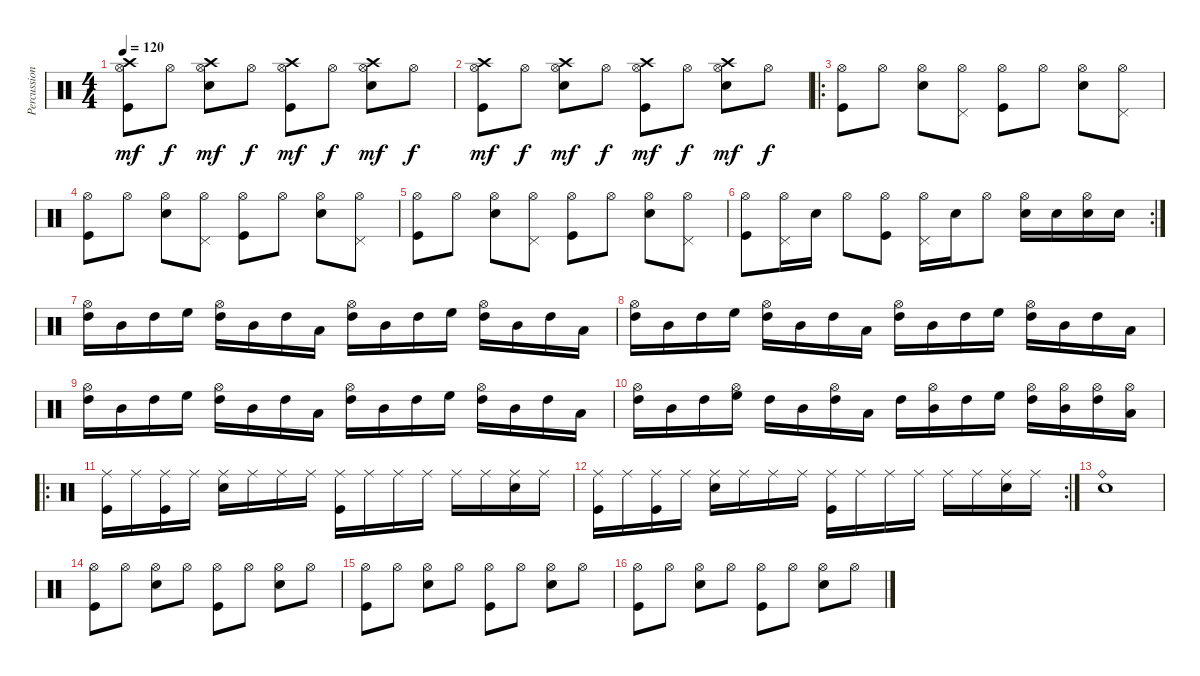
\track ("Percussion" "Percussion") {instrument percussion}
\staff {score}
\articulation defaults
\ts (4 4)
\tempo 120
\clef neutral
\ks c
("Hi-Hat (open)" "Kick (hit)" "Crash high (hit)").8{dy mf} "Hi-Hat (open)".8{dy f} ("Hi-Hat (open)" "Snare (hit) 2" "Crash high (hit)").8{dy mf} "Hi-Hat (open)".8{dy f} ("Hi-Hat (open)" "Kick (hit)" "Crash high (hit)").8{dy mf} "Hi-Hat (open)".8{dy f} ("Hi-Hat (open)" "Snare (hit) 2" "Crash high (hit)").8{dy mf} "Hi-Hat (open)".8{dy f} |
("Hi-Hat (open)" "Kick (hit)" "Crash high (hit)").8{dy mf} "Hi-Hat (open)".8{dy f} ("Hi-Hat (open)" "Snare (hit) 2" "Crash high (hit)").8{dy mf} "Hi-Hat (open)".8{dy f} ("Hi-Hat (open)" "Kick (hit)" "Crash high (hit)").8{dy mf} "Hi-Hat (open)".8{dy f} ("Hi-Hat (open)" "Snare (hit) 2" "Crash high (hit)").8{dy mf} "Hi-Hat (open)".8{dy f} |
\ro
("Hi-Hat (open)" "Kick (hit)").8 "Hi-Hat (open)".8 ("Hi-Hat (open)" "Snare (hit) 2").8 ("Hi-Hat (open)" "Pedal Hi-Hat (hit)").8 ("Hi-Hat (open)" "Kick (hit)").8 "Hi-Hat (open)".8 ("Hi-Hat (open)" "Snare (hit) 2").8 ("Hi-Hat (open)" "Pedal Hi-Hat (hit)").8 |
("Hi-Hat (open)" "Kick (hit)").8 "Hi-Hat (open)".8 ("Hi-Hat (open)" "Snare (hit) 2").8 ("Hi-Hat (open)" "Pedal Hi-Hat (hit)").8 ("Hi-Hat (open)" "Kick (hit)").8 "Hi-Hat (open)".8 ("Hi-Hat (open)" "Snare (hit) 2").8 ("Hi-Hat (open)" "Pedal Hi-Hat (hit)").8 |
("Hi-Hat (open)" "Kick (hit)").8 "Hi-Hat (open)".8 ("Hi-Hat (open)" "Snare (hit) 2").8 ("Hi-Hat (open)" "Pedal Hi-Hat (hit)").8 ("Hi-Hat (open)" "Kick (hit)").8 "Hi-Hat (open)".8 ("Hi-Hat (open)" "Snare (hit) 2").8 ("Hi-Hat (open)" "Pedal Hi-Hat (hit)").8 |
\rc 2
("Hi-Hat (open)" "Kick (hit)").8 ("Hi-Hat (open)" "Pedal Hi-Hat (hit)").16 "Snare (hit) 2".16 "Hi-Hat (open)".8 ("Hi-Hat (open)" "Kick (hit)").8 ("Hi-Hat (open)" "Pedal Hi-Hat (hit)").16 "Snare (hit) 2".16 "Hi-Hat (open)".8 ("Hi-Hat (open)" "Snare (hit) 2").16 "Snare (hit) 2".16 ("Hi-Hat (open)" "Snare (hit) 2").16 "Snare (hit) 2".16 |
("Hi-Hat (open)" "High Tom (hit)").16 "Mid Tom (hit)".16 "High Tom (hit)".16 "High Floor Tom (hit)".16 ("Hi-Hat (open)" "High Tom (hit)").16 "Mid Tom (hit)".16 "High Tom (hit)".16 "Low Tom (hit)".16 ("Hi-Hat (open)" "High Tom (hit)").16 "Mid Tom (hit)".16 "High Tom (hit)".16 "High Floor Tom (hit)".16 ("Hi-Hat (open)" "High Tom (hit)").16 "Mid Tom (hit)".16 "High Tom (hit)".16 "Low Tom (hit)".16 |
("Hi-Hat (open)" "High Tom (hit)").16 "Mid Tom (hit)".16 "High Tom (hit)".16 "High Floor Tom (hit)".16 ("Hi-Hat (open)" "High Tom (hit)").16 "Mid Tom (hit)".16 "High Tom (hit)".16 "Low Tom (hit)".16 ("Hi-Hat (open)" "High Tom (hit)").16 "Mid Tom (hit)".16 "High Tom (hit)".16 "High Floor Tom (hit)".16 ("Hi-Hat (open)" "High Tom (hit)").16 "Mid Tom (hit)".16 "High Tom (hit)".16 "Low Tom (hit)".16 |
("Hi-Hat (open)" "High Tom (hit)").16 "Mid Tom (hit)".16 "High Tom (hit)".16 "High Floor Tom (hit)".16 ("Hi-Hat (open)" "High Tom (hit)").16 "Mid Tom (hit)".16 "High Tom (hit)".16 "Low Tom (hit)".16 ("Hi-Hat (open)" "High Tom (hit)").16 "Mid Tom (hit)".16 "High Tom (hit)".16 "High Floor Tom (hit)".16 ("Hi-Hat (open)" "High Tom (hit)").16 "Mid Tom (hit)".16 "High Tom (hit)".16 "Low Tom (hit)".16 |
("Hi-Hat (open)" "High Tom (hit)").16 "Mid Tom (hit)".16 "High Tom (hit)".16 ("Hi-Hat (open)" "High Floor Tom (hit)").16 "High Tom (hit)".16 "Mid Tom (hit)".16 ("Hi-Hat (open)" "High Tom (hit)").16 "Low Tom (hit)".16 "High Tom (hit)".16 ("Hi-Hat (open)" "Mid Tom (hit)").16 "High Tom (hit)".16 "High Floor Tom (hit)".16 ("Hi-Hat (open)" "High Tom (hit)").16 ("Hi-Hat (open)" "Mid Tom (hit)").16 ("Hi-Hat (open)" "High Tom (hit)").16 ("Hi-Hat (open)" "Low Tom (hit)").16 |
\ro
("Ride (middle)" "Kick (hit)").16 "Ride (middle)".16 ("Ride (middle)" "Kick (hit)").16 "Ride (middle)".16 ("Ride (middle)" "Snare (hit) 2").16 "Ride (middle)".16 "Ride (middle)".16 "Ride (middle)".16 ("Ride (middle)" "Kick (hit)").16 "Ride (middle)".16 "Ride (middle)".16 "Ride (middle)".16 "Ride (middle)".16 "Ride (middle)".16 ("Ride (middle)" "Snare (hit) 2").16 "Ride (middle)".16 |
\rc 2
("Ride (middle)" "Kick (hit)").16 "Ride (middle)".16 ("Ride (middle)" "Kick (hit)").16 "Ride (middle)".16 ("Ride (middle)" "Snare (hit) 2").16 "Ride (middle)".16 "Ride (middle)".16 "Ride (middle)".16 ("Ride (middle)" "Kick (hit)").16 "Ride (middle)".16 "Ride (middle)".16 "Ride (middle)".16 "Ride (middle)".16 "Ride (middle)".16 ("Ride (middle)" "Snare (hit) 2").16 "Ride (middle)".16 |
("Ride (bell)" "Snare (hit) 2").1 |
("Hi-Hat (open)" "Kick (hit)").8 "Hi-Hat (open)".8 ("Hi-Hat (open)" "Snare (hit) 2").8 "Hi-Hat (open)".8 ("Hi-Hat (open)" "Kick (hit)").8 "Hi-Hat (open)".8 ("Hi-Hat (open)" "Snare (hit) 2").8 "Hi-Hat (open)".8 |
("Hi-Hat (open)" "Kick (hit)").8 "Hi-Hat (open)".8 ("Hi-Hat (open)" "Snare (hit) 2").8 "Hi-Hat (open)".8 ("Hi-Hat (open)" "Kick (hit)").8 "Hi-Hat (open)".8 ("Hi-Hat (open)" "Snare (hit) 2").8 "Hi-Hat (open)".8 |
("Hi-Hat (open)" "Kick (hit)").8 "Hi-Hat (open)".8 ("Hi-Hat (open)" "Snare (hit) 2").8 "Hi-Hat (open)".8 ("Hi-Hat (open)" "Kick (hit)").8 "Hi-Hat (open)".8 ("Hi-Hat (open)" "Snare (hit) 2").8 "Hi-Hat (open)".8
